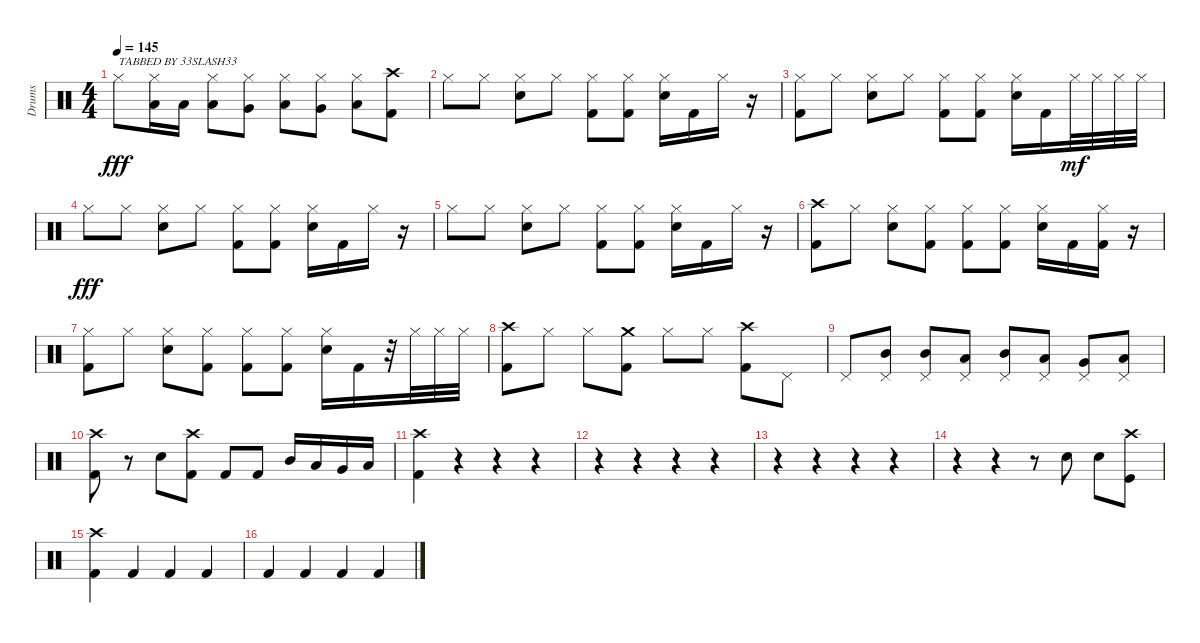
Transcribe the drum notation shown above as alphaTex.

\track ("Drums" "Drums") {instrument percussion}
\staff {score}
\articulation defaults
\ts (4 4)
\tempo 145
\clef neutral
\ks c "Hi-Hat (closed)".8{txt "TABBED BY 33SLASH33" dy fff}
("Hi-Hat (closed)" "Low Tom (hit)").16 "Low Tom (hit)".16 ("Hi-Hat (closed)" "Low Tom (hit)").8 ("Hi-Hat (closed)" "Very Low Tom (hit)").8 ("Hi-Hat (closed)" "Low Tom (hit)").8 ("Hi-Hat (closed)" "Very Low Tom (hit)").8 ("Hi-Hat (closed)" "Low Floor Tom (hit)").8 ("Crash high (hit)" "Kick (hit) 2").8 |
"Hi-Hat (closed)".8 "Hi-Hat (closed)".8 ("Hi-Hat (closed)" "Snare (hit) 2").8 "Hi-Hat (closed)".8 ("Hi-Hat (closed)" "Kick (hit) 2").8 ("Hi-Hat (closed)" "Kick (hit) 2").8 ("Hi-Hat (closed)" "Snare (hit) 2").16 "Kick (hit) 2".16 "Hi-Hat (closed)".16 r.16 |
("Hi-Hat (closed)" "Kick (hit) 2").8 "Hi-Hat (closed)".8 ("Hi-Hat (closed)" "Snare (hit) 2").8 "Hi-Hat (closed)".8 ("Hi-Hat (closed)" "Kick (hit) 2").8 ("Hi-Hat (closed)" "Kick (hit) 2").8 ("Hi-Hat (closed)" "Snare (hit) 2").16 "Kick (hit) 2".16 "Hi-Hat (closed)".32{dy mf} "Hi-Hat (closed)".32 "Hi-Hat (closed)".32 "Hi-Hat (closed)".32 |
"Hi-Hat (closed)".8{dy fff} "Hi-Hat (closed)".8 ("Hi-Hat (closed)" "Snare (hit) 2").8 "Hi-Hat (closed)".8 ("Hi-Hat (closed)" "Kick (hit) 2").8 ("Hi-Hat (closed)" "Kick (hit) 2").8 ("Hi-Hat (closed)" "Snare (hit) 2").16 "Kick (hit) 2".16 "Hi-Hat (closed)".16 r.16 |
"Hi-Hat (closed)".8 "Hi-Hat (closed)".8 ("Hi-Hat (closed)" "Snare (hit) 2").8 "Hi-Hat (closed)".8 ("Hi-Hat (closed)" "Kick (hit) 2").8 ("Hi-Hat (closed)" "Kick (hit) 2").8 ("Hi-Hat (closed)" "Snare (hit) 2").16 "Kick (hit) 2".16 "Hi-Hat (closed)".16 r.16 |
("Crash high (hit)" "Kick (hit) 2").8 "Hi-Hat (closed)".8 ("Hi-Hat (closed)" "Snare (hit) 2").8 ("Hi-Hat (closed)" "Kick (hit) 2").8 ("Hi-Hat (closed)" "Kick (hit) 2").8 ("Hi-Hat (closed)" "Kick (hit) 2").8 ("Hi-Hat (closed)" "Snare (hit) 2").16 "Kick (hit) 2".16 ("Hi-Hat (closed)" "Kick (hit) 2").16 r.16 |
("Hi-Hat (closed)" "Kick (hit) 2").8 "Hi-Hat (closed)".8 ("Hi-Hat (closed)" "Snare (hit) 2").8 ("Hi-Hat (closed)" "Kick (hit) 2").8 ("Hi-Hat (closed)" "Kick (hit) 2").8 ("Hi-Hat (closed)" "Kick (hit) 2").8 ("Hi-Hat (closed)" "Snare (hit) 2").16 "Kick (hit) 2".16 r.32 "Hi-Hat (closed)".32 "Hi-Hat (closed)".32 "Hi-Hat (closed)".32 |
("Crash high (hit)" "Kick (hit) 2").8 "Hi-Hat (closed)".8 "Hi-Hat (closed)".8 ("Crash medium (hit)" "Kick (hit) 2").8 "Hi-Hat (closed)".8 "Hi-Hat (closed)".8 ("Crash high (hit)" "Kick (hit) 2").8 "Pedal Hi-Hat (hit)".8 |
"Pedal Hi-Hat (hit)".8 ("Pedal Hi-Hat (hit)" "Mid Tom (hit)").8 ("Pedal Hi-Hat (hit)" "Mid Tom (hit)").8 ("Pedal Hi-Hat (hit)" "Low Tom (hit)").8 ("Pedal Hi-Hat (hit)" "Mid Tom (hit)").8 ("Pedal Hi-Hat (hit)" "Low Tom (hit)").8 ("Pedal Hi-Hat (hit)" "Very Low Tom (hit)").8 ("Pedal Hi-Hat (hit)" "Low Floor Tom (hit)").8 |
("Crash high (hit)" "Kick (hit) 2").8 r.8 "Snare (hit) 2".8 ("Crash high (hit)" "Kick (hit) 2").8 "Kick (hit) 2".8 "Kick (hit) 2".8 "Mid Tom (hit)".16 "Low Tom (hit)".16 "Very Low Tom (hit)".16 "Low Floor Tom (hit)".16 |
("Crash high (hit)" "Kick (hit) 2").4 r.4 r.4 r.4 |
r.4 r.4 r.4 r.4 |
r.4 r.4 r.4 r.4 |
r.4 r.4 r.8 "Snare (hit) 2".8 "Snare (hit) 2".8 ("Crash high (hit)" "Kick (hit)").8 |
("Crash high (hit)" "Kick (hit) 2").4 "Kick (hit) 2".4 "Kick (hit) 2".4 "Kick (hit) 2".4 |
"Kick (hit) 2".4 "Kick (hit) 2".4 "Kick (hit) 2".4 "Kick (hit) 2".4
